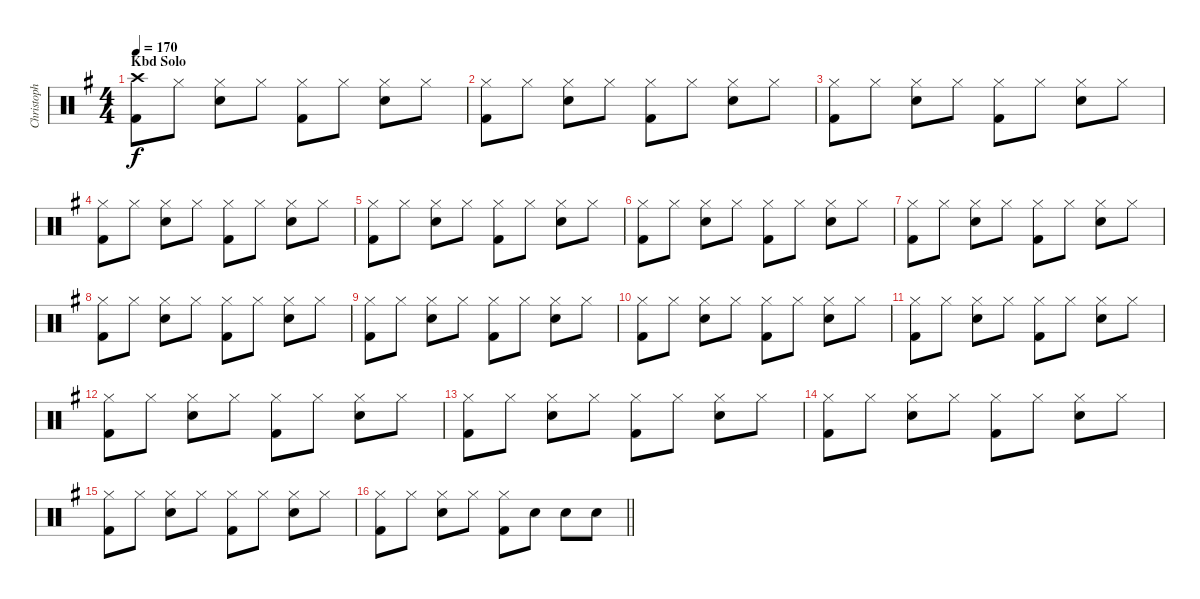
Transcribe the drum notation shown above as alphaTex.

\track ("Christoph Doom Schneider - Drums" "Christoph ") {instrument percussion}
\staff {score}
\articulation defaults
\ts (4 4)
\section ("" "Kbd Solo")
\tempo 170
\clef neutral
\ks g
("Crash high (hit)" "Kick (hit) 2").8{dy f} "Hi-Hat (closed)".8 ("Hi-Hat (closed)" "Electric Snare (hit)").8 "Hi-Hat (closed)".8 ("Hi-Hat (closed)" "Kick (hit) 2").8 "Hi-Hat (closed)".8 ("Hi-Hat (closed)" "Electric Snare (hit)").8 "Hi-Hat (closed)".8 |
("Hi-Hat (closed)" "Kick (hit) 2").8 "Hi-Hat (closed)".8 ("Hi-Hat (closed)" "Electric Snare (hit)").8 "Hi-Hat (closed)".8 ("Hi-Hat (closed)" "Kick (hit) 2").8 "Hi-Hat (closed)".8 ("Hi-Hat (closed)" "Electric Snare (hit)").8 "Hi-Hat (closed)".8 |
("Hi-Hat (closed)" "Kick (hit) 2").8 "Hi-Hat (closed)".8 ("Hi-Hat (closed)" "Electric Snare (hit)").8 "Hi-Hat (closed)".8 ("Hi-Hat (closed)" "Kick (hit) 2").8 "Hi-Hat (closed)".8 ("Hi-Hat (closed)" "Electric Snare (hit)").8 "Hi-Hat (closed)".8 |
("Hi-Hat (closed)" "Kick (hit) 2").8 "Hi-Hat (closed)".8 ("Hi-Hat (closed)" "Electric Snare (hit)").8 "Hi-Hat (closed)".8 ("Hi-Hat (closed)" "Kick (hit) 2").8 "Hi-Hat (closed)".8 ("Hi-Hat (closed)" "Electric Snare (hit)").8 "Hi-Hat (closed)".8 |
("Hi-Hat (closed)" "Kick (hit) 2").8 "Hi-Hat (closed)".8 ("Hi-Hat (closed)" "Electric Snare (hit)").8 "Hi-Hat (closed)".8 ("Hi-Hat (closed)" "Kick (hit) 2").8 "Hi-Hat (closed)".8 ("Hi-Hat (closed)" "Electric Snare (hit)").8 "Hi-Hat (closed)".8 |
("Hi-Hat (closed)" "Kick (hit) 2").8 "Hi-Hat (closed)".8 ("Hi-Hat (closed)" "Electric Snare (hit)").8 "Hi-Hat (closed)".8 ("Hi-Hat (closed)" "Kick (hit) 2").8 "Hi-Hat (closed)".8 ("Hi-Hat (closed)" "Electric Snare (hit)").8 "Hi-Hat (closed)".8 |
("Hi-Hat (closed)" "Kick (hit) 2").8 "Hi-Hat (closed)".8 ("Hi-Hat (closed)" "Electric Snare (hit)").8 "Hi-Hat (closed)".8 ("Hi-Hat (closed)" "Kick (hit) 2").8 "Hi-Hat (closed)".8 ("Hi-Hat (closed)" "Electric Snare (hit)").8 "Hi-Hat (closed)".8 |
("Hi-Hat (closed)" "Kick (hit) 2").8 "Hi-Hat (closed)".8 ("Hi-Hat (closed)" "Electric Snare (hit)").8 "Hi-Hat (closed)".8 ("Hi-Hat (closed)" "Kick (hit) 2").8 "Hi-Hat (closed)".8 ("Hi-Hat (closed)" "Electric Snare (hit)").8 "Hi-Hat (closed)".8 |
("Hi-Hat (closed)" "Kick (hit) 2").8 "Hi-Hat (closed)".8 ("Hi-Hat (closed)" "Electric Snare (hit)").8 "Hi-Hat (closed)".8 ("Hi-Hat (closed)" "Kick (hit) 2").8 "Hi-Hat (closed)".8 ("Hi-Hat (closed)" "Electric Snare (hit)").8 "Hi-Hat (closed)".8 |
("Hi-Hat (closed)" "Kick (hit) 2").8 "Hi-Hat (closed)".8 ("Hi-Hat (closed)" "Electric Snare (hit)").8 "Hi-Hat (closed)".8 ("Hi-Hat (closed)" "Kick (hit) 2").8 "Hi-Hat (closed)".8 ("Hi-Hat (closed)" "Electric Snare (hit)").8 "Hi-Hat (closed)".8 |
("Hi-Hat (closed)" "Kick (hit) 2").8 "Hi-Hat (closed)".8 ("Hi-Hat (closed)" "Electric Snare (hit)").8 "Hi-Hat (closed)".8 ("Hi-Hat (closed)" "Kick (hit) 2").8 "Hi-Hat (closed)".8 ("Hi-Hat (closed)" "Electric Snare (hit)").8 "Hi-Hat (closed)".8 |
("Hi-Hat (closed)" "Kick (hit) 2").8 "Hi-Hat (closed)".8 ("Hi-Hat (closed)" "Electric Snare (hit)").8 "Hi-Hat (closed)".8 ("Hi-Hat (closed)" "Kick (hit) 2").8 "Hi-Hat (closed)".8 ("Hi-Hat (closed)" "Electric Snare (hit)").8 "Hi-Hat (closed)".8 |
("Hi-Hat (closed)" "Kick (hit) 2").8 "Hi-Hat (closed)".8 ("Hi-Hat (closed)" "Electric Snare (hit)").8 "Hi-Hat (closed)".8 ("Hi-Hat (closed)" "Kick (hit) 2").8 "Hi-Hat (closed)".8 ("Hi-Hat (closed)" "Electric Snare (hit)").8 "Hi-Hat (closed)".8 |
("Hi-Hat (closed)" "Kick (hit) 2").8 "Hi-Hat (closed)".8 ("Hi-Hat (closed)" "Electric Snare (hit)").8 "Hi-Hat (closed)".8 ("Hi-Hat (closed)" "Kick (hit) 2").8 "Hi-Hat (closed)".8 ("Hi-Hat (closed)" "Electric Snare (hit)").8 "Hi-Hat (closed)".8 |
("Hi-Hat (closed)" "Kick (hit) 2").8 "Hi-Hat (closed)".8 ("Hi-Hat (closed)" "Electric Snare (hit)").8 "Hi-Hat (closed)".8 ("Hi-Hat (closed)" "Kick (hit) 2").8 "Hi-Hat (closed)".8 ("Hi-Hat (closed)" "Electric Snare (hit)").8 "Hi-Hat (closed)".8 |
\barLineRight lightlight
("Hi-Hat (closed)" "Kick (hit) 2").8 "Hi-Hat (closed)".8 ("Hi-Hat (closed)" "Electric Snare (hit)").8 "Hi-Hat (closed)".8 ("Hi-Hat (closed)" "Kick (hit) 2").8 "Electric Snare (hit)".8 "Electric Snare (hit)".8 "Electric Snare (hit)".8
